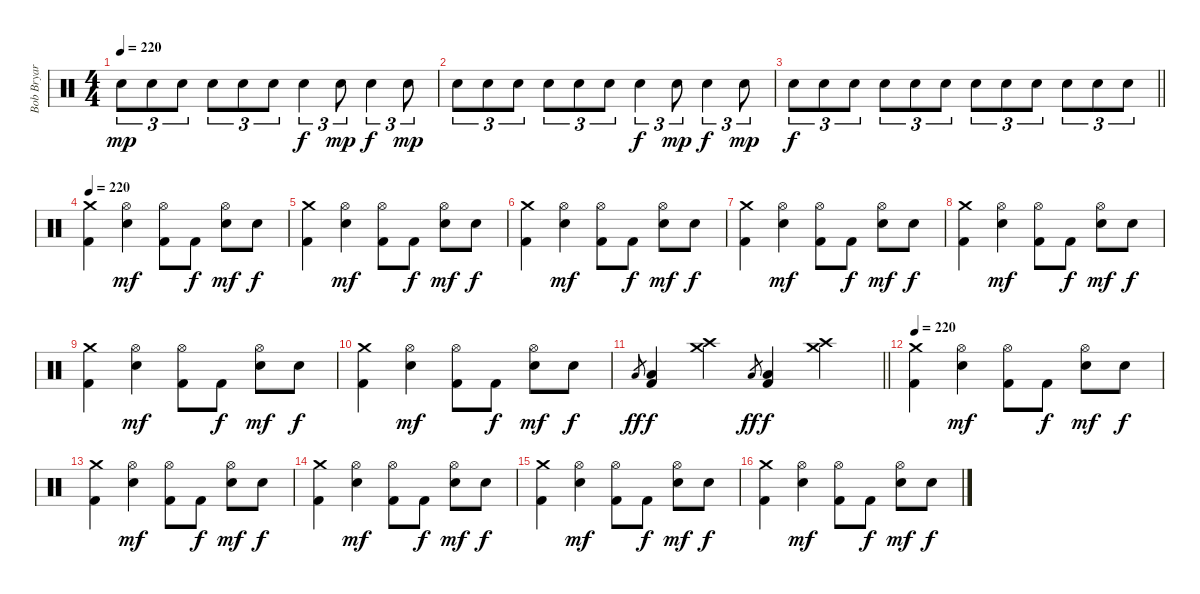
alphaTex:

\track ("Bob Bryar" "Bob Bryar") {instrument percussion}
\staff {score}
\articulation defaults
\ts (4 4)
\tempo 220
\clef neutral
\ks c "Snare (hit) 2".8{tu (3 2) dy mp} "Snare (hit) 2".8{tu (3 2)} "Snare (hit) 2".8{tu (3 2)} "Snare (hit) 2".8{tu (3 2)} "Snare (hit) 2".8{tu (3 2)} "Snare (hit) 2".8{tu (3 2)} "Electric Snare (hit)".4{tu (3 2) dy f} "Snare (hit) 2".8{tu (3 2) dy mp} "Electric Snare (hit)".4{tu (3 2) dy f} "Snare (hit) 2".8{tu (3 2) dy mp}
|
"Snare (hit) 2".8{tu (3 2)} "Snare (hit) 2".8{tu (3 2)} "Snare (hit) 2".8{tu (3 2)} "Snare (hit) 2".8{tu (3 2)} "Snare (hit) 2".8{tu (3 2)} "Snare (hit) 2".8{tu (3 2)} "Electric Snare (hit)".4{tu (3 2) dy f} "Snare (hit) 2".8{tu (3 2) dy mp} "Electric Snare (hit)".4{tu (3 2) dy f} "Snare (hit) 2".8{tu (3 2) dy mp} |
\barLineRight lightlight "Electric Snare (hit)".8{tu (3 2) dy f} "Electric Snare (hit)".8{tu (3 2)} "Electric Snare (hit)".8{tu (3 2)} "Electric Snare (hit)".8{tu (3 2)} "Electric Snare (hit)".8{tu (3 2)} "Electric Snare (hit)".8{tu (3 2)} "Electric Snare (hit)".8{tu (3 2)} "Electric Snare (hit)".8{tu (3 2)} "Electric Snare (hit)".8{tu (3 2)} "Electric Snare (hit)".8{tu (3 2)} "Electric Snare (hit)".8{tu (3 2)} "Electric Snare (hit)".8{tu (3 2)}
|
\tempo 220
("Crash medium (hit)" "Kick (hit) 2").4 ("Hi-Hat (open)" "Electric Snare (hit)").4{dy mf} ("Hi-Hat (open)" "Kick (hit) 2").8 "Kick (hit) 2".8{dy f} ("Hi-Hat (open)" "Electric Snare (hit)").8{dy mf} "Electric Snare (hit)".8{dy f} |
("Crash medium (hit)" "Kick (hit) 2").4 ("Hi-Hat (open)" "Electric Snare (hit)").4{dy mf} ("Hi-Hat (open)" "Kick (hit) 2").8 "Kick (hit) 2".8{dy f} ("Hi-Hat (open)" "Electric Snare (hit)").8{dy mf} "Electric Snare (hit)".8{dy f} |
("Crash medium (hit)" "Kick (hit) 2").4 ("Hi-Hat (open)" "Electric Snare (hit)").4{dy mf} ("Hi-Hat (open)" "Kick (hit) 2").8 "Kick (hit) 2".8{dy f} ("Hi-Hat (open)" "Electric Snare (hit)").8{dy mf} "Electric Snare (hit)".8{dy f} |
("Crash medium (hit)" "Kick (hit) 2").4 ("Hi-Hat (open)" "Electric Snare (hit)").4{dy mf} ("Hi-Hat (open)" "Kick (hit) 2").8 "Kick (hit) 2".8{dy f} ("Hi-Hat (open)" "Electric Snare (hit)").8{dy mf} "Electric Snare (hit)".8{dy f} |
("Crash medium (hit)" "Kick (hit) 2").4 ("Hi-Hat (open)" "Electric Snare (hit)").4{dy mf} ("Hi-Hat (open)" "Kick (hit) 2").8 "Kick (hit) 2".8{dy f} ("Hi-Hat (open)" "Electric Snare (hit)").8{dy mf} "Electric Snare (hit)".8{dy f} |
("Crash medium (hit)" "Kick (hit) 2").4 ("Hi-Hat (open)" "Electric Snare (hit)").4{dy mf} ("Hi-Hat (open)" "Kick (hit) 2").8 "Kick (hit) 2".8{dy f} ("Hi-Hat (open)" "Electric Snare (hit)").8{dy mf} "Electric Snare (hit)".8{dy f} |
("Crash medium (hit)" "Kick (hit) 2").4 ("Hi-Hat (open)" "Electric Snare (hit)").4{dy mf} ("Hi-Hat (open)" "Kick (hit) 2").8 "Kick (hit) 2".8{dy f} ("Hi-Hat (open)" "Electric Snare (hit)").8{dy mf} "Electric Snare (hit)".8{dy f} |
\barLineRight lightlight "Low Floor Tom (hit)".8{gr dy ff}
("Low Floor Tom (hit)" "Kick (hit) 2").4{dy f} ("Crash medium (hit)" "Crash high (hit)").4 "Low Floor Tom (hit)".8{gr dy ff} ("Low Floor Tom (hit)" "Kick (hit) 2").4{dy f} ("Crash medium (hit)" "Crash high (hit)").4 |
\tempo 220
("Crash medium (hit)" "Kick (hit) 2").4 ("Hi-Hat (open)" "Electric Snare (hit)").4{dy mf} ("Hi-Hat (open)" "Kick (hit) 2").8 "Kick (hit) 2".8{dy f} ("Hi-Hat (open)" "Electric Snare (hit)").8{dy mf} "Electric Snare (hit)".8{dy f} |
("Crash medium (hit)" "Kick (hit) 2").4 ("Hi-Hat (open)" "Electric Snare (hit)").4{dy mf} ("Hi-Hat (open)" "Kick (hit) 2").8 "Kick (hit) 2".8{dy f} ("Hi-Hat (open)" "Electric Snare (hit)").8{dy mf} "Electric Snare (hit)".8{dy f} |
("Crash medium (hit)" "Kick (hit) 2").4 ("Hi-Hat (open)" "Electric Snare (hit)").4{dy mf} ("Hi-Hat (open)" "Kick (hit) 2").8 "Kick (hit) 2".8{dy f} ("Hi-Hat (open)" "Electric Snare (hit)").8{dy mf} "Electric Snare (hit)".8{dy f} |
("Crash medium (hit)" "Kick (hit) 2").4 ("Hi-Hat (open)" "Electric Snare (hit)").4{dy mf} ("Hi-Hat (open)" "Kick (hit) 2").8 "Kick (hit) 2".8{dy f} ("Hi-Hat (open)" "Electric Snare (hit)").8{dy mf} "Electric Snare (hit)".8{dy f} |
("Crash medium (hit)" "Kick (hit) 2").4 ("Hi-Hat (open)" "Electric Snare (hit)").4{dy mf} ("Hi-Hat (open)" "Kick (hit) 2").8 "Kick (hit) 2".8{dy f} ("Hi-Hat (open)" "Electric Snare (hit)").8{dy mf} "Electric Snare (hit)".8{dy f}
